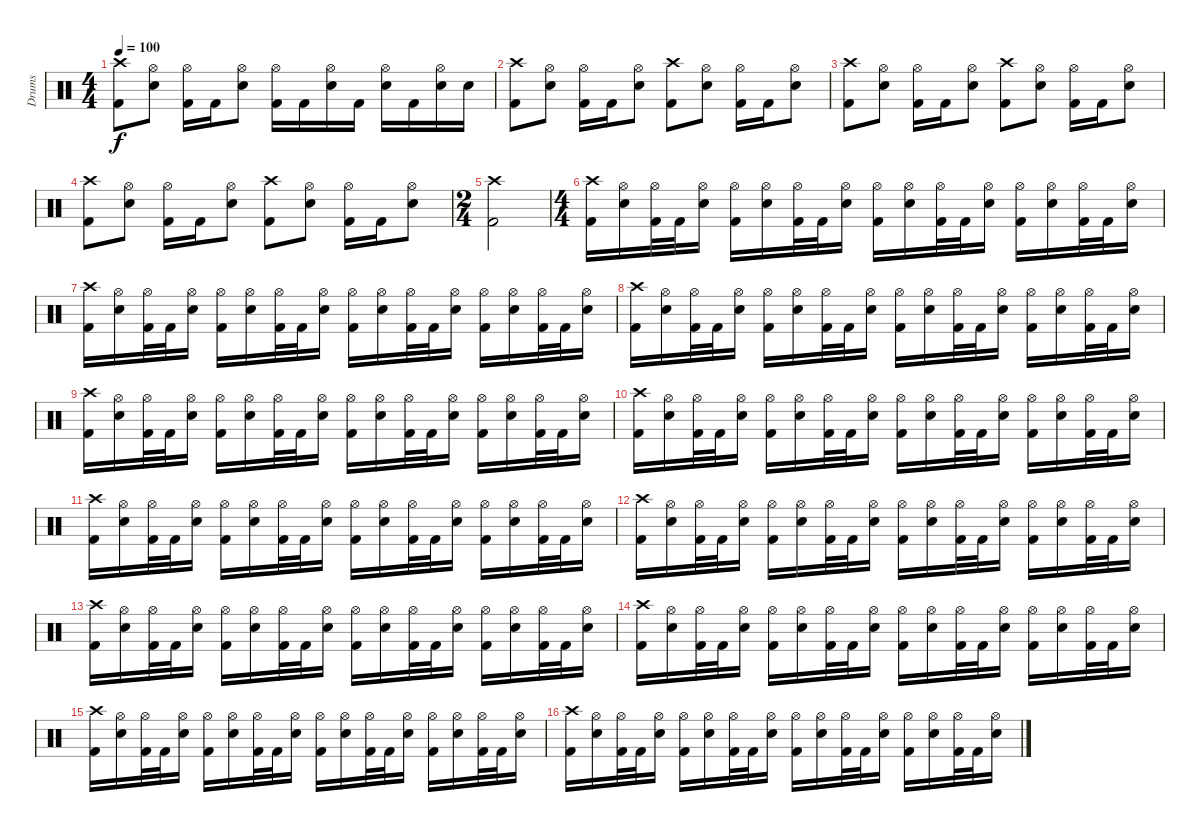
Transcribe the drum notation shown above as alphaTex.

\track ("Drums" "Drums") {instrument percussion}
\staff {score}
\articulation defaults
\ts (4 4)
\tempo 100
\clef neutral
\ks c
("Crash high (hit)" "Kick (hit) 2").8{dy f} ("Hi-Hat (open)" "Electric Snare (hit)").8 ("Hi-Hat (open)" "Kick (hit) 2").16 "Kick (hit) 2".16 ("Hi-Hat (open)" "Electric Snare (hit)").8 ("Hi-Hat (open)" "Kick (hit) 2").16 "Kick (hit) 2".16 ("Hi-Hat (open)" "Electric Snare (hit)").16 "Kick (hit) 2".16 ("Hi-Hat (open)" "Electric Snare (hit)").16 "Kick (hit) 2".16 ("Hi-Hat (open)" "Electric Snare (hit)").16 "Electric Snare (hit)".16 |
("Crash high (hit)" "Kick (hit) 2").8 ("Hi-Hat (open)" "Electric Snare (hit)").8 ("Hi-Hat (open)" "Kick (hit) 2").16 "Kick (hit) 2".16 ("Hi-Hat (open)" "Electric Snare (hit)").8 ("Crash high (hit)" "Kick (hit) 2").8 ("Hi-Hat (open)" "Electric Snare (hit)").8 ("Hi-Hat (open)" "Kick (hit) 2").16 "Kick (hit) 2".16 ("Hi-Hat (open)" "Electric Snare (hit)").8 |
("Crash high (hit)" "Kick (hit) 2").8 ("Hi-Hat (open)" "Electric Snare (hit)").8 ("Hi-Hat (open)" "Kick (hit) 2").16 "Kick (hit) 2".16 ("Hi-Hat (open)" "Electric Snare (hit)").8 ("Crash high (hit)" "Kick (hit) 2").8 ("Hi-Hat (open)" "Electric Snare (hit)").8 ("Hi-Hat (open)" "Kick (hit) 2").16 "Kick (hit) 2".16 ("Hi-Hat (open)" "Electric Snare (hit)").8 |
("Crash high (hit)" "Kick (hit) 2").8 ("Hi-Hat (open)" "Electric Snare (hit)").8 ("Hi-Hat (open)" "Kick (hit) 2").16 "Kick (hit) 2".16 ("Hi-Hat (open)" "Electric Snare (hit)").8 ("Crash high (hit)" "Kick (hit) 2").8 ("Hi-Hat (open)" "Electric Snare (hit)").8 ("Hi-Hat (open)" "Kick (hit) 2").16 "Kick (hit) 2".16 ("Hi-Hat (open)" "Electric Snare (hit)").8 |
\ts (2 4)
("Crash high (hit)" "Kick (hit) 2").2 |
\ts (4 4)
("Crash high (hit)" "Kick (hit) 2").16 ("Hi-Hat (open)" "Electric Snare (hit)").16 ("Hi-Hat (open)" "Kick (hit) 2").32 "Kick (hit) 2".32 ("Hi-Hat (open)" "Electric Snare (hit)").16 ("Hi-Hat (open)" "Kick (hit) 2").16 ("Hi-Hat (open)" "Electric Snare (hit)").16 ("Hi-Hat (open)" "Kick (hit) 2").32 "Kick (hit) 2".32 ("Hi-Hat (open)" "Electric Snare (hit)").16 ("Hi-Hat (open)" "Kick (hit) 2").16 ("Hi-Hat (open)" "Electric Snare (hit)").16 ("Hi-Hat (open)" "Kick (hit) 2").32 "Kick (hit) 2".32 ("Hi-Hat (open)" "Electric Snare (hit)").16 ("Hi-Hat (open)" "Kick (hit) 2").16 ("Hi-Hat (open)" "Electric Snare (hit)").16 ("Hi-Hat (open)" "Kick (hit) 2").32 "Kick (hit) 2".32 ("Hi-Hat (open)" "Electric Snare (hit)").16 |
("Crash high (hit)" "Kick (hit) 2").16 ("Hi-Hat (open)" "Electric Snare (hit)").16 ("Hi-Hat (open)" "Kick (hit) 2").32 "Kick (hit) 2".32 ("Hi-Hat (open)" "Electric Snare (hit)").16 ("Hi-Hat (open)" "Kick (hit) 2").16 ("Hi-Hat (open)" "Electric Snare (hit)").16 ("Hi-Hat (open)" "Kick (hit) 2").32 "Kick (hit) 2".32 ("Hi-Hat (open)" "Electric Snare (hit)").16 ("Hi-Hat (open)" "Kick (hit) 2").16 ("Hi-Hat (open)" "Electric Snare (hit)").16 ("Hi-Hat (open)" "Kick (hit) 2").32 "Kick (hit) 2".32 ("Hi-Hat (open)" "Electric Snare (hit)").16 ("Hi-Hat (open)" "Kick (hit) 2").16 ("Hi-Hat (open)" "Electric Snare (hit)").16 ("Hi-Hat (open)" "Kick (hit) 2").32 "Kick (hit) 2".32 ("Hi-Hat (open)" "Electric Snare (hit)").16 |
("Crash high (hit)" "Kick (hit) 2").16 ("Hi-Hat (open)" "Electric Snare (hit)").16 ("Hi-Hat (open)" "Kick (hit) 2").32 "Kick (hit) 2".32 ("Hi-Hat (open)" "Electric Snare (hit)").16 ("Hi-Hat (open)" "Kick (hit) 2").16 ("Hi-Hat (open)" "Electric Snare (hit)").16 ("Hi-Hat (open)" "Kick (hit) 2").32 "Kick (hit) 2".32 ("Hi-Hat (open)" "Electric Snare (hit)").16 ("Hi-Hat (open)" "Kick (hit) 2").16 ("Hi-Hat (open)" "Electric Snare (hit)").16 ("Hi-Hat (open)" "Kick (hit) 2").32 "Kick (hit) 2".32 ("Hi-Hat (open)" "Electric Snare (hit)").16 ("Hi-Hat (open)" "Kick (hit) 2").16 ("Hi-Hat (open)" "Electric Snare (hit)").16 ("Hi-Hat (open)" "Kick (hit) 2").32 "Kick (hit) 2".32 ("Hi-Hat (open)" "Electric Snare (hit)").16 |
("Crash high (hit)" "Kick (hit) 2").16 ("Hi-Hat (open)" "Electric Snare (hit)").16 ("Hi-Hat (open)" "Kick (hit) 2").32 "Kick (hit) 2".32 ("Hi-Hat (open)" "Electric Snare (hit)").16 ("Hi-Hat (open)" "Kick (hit) 2").16 ("Hi-Hat (open)" "Electric Snare (hit)").16 ("Hi-Hat (open)" "Kick (hit) 2").32 "Kick (hit) 2".32 ("Hi-Hat (open)" "Electric Snare (hit)").16 ("Hi-Hat (open)" "Kick (hit) 2").16 ("Hi-Hat (open)" "Electric Snare (hit)").16 ("Hi-Hat (open)" "Kick (hit) 2").32 "Kick (hit) 2".32 ("Hi-Hat (open)" "Electric Snare (hit)").16 ("Hi-Hat (open)" "Kick (hit) 2").16 ("Hi-Hat (open)" "Electric Snare (hit)").16 ("Hi-Hat (open)" "Kick (hit) 2").32 "Kick (hit) 2".32 ("Hi-Hat (open)" "Electric Snare (hit)").16 |
("Crash high (hit)" "Kick (hit) 2").16 ("Hi-Hat (open)" "Electric Snare (hit)").16 ("Hi-Hat (open)" "Kick (hit) 2").32 "Kick (hit) 2".32 ("Hi-Hat (open)" "Electric Snare (hit)").16 ("Hi-Hat (open)" "Kick (hit) 2").16 ("Hi-Hat (open)" "Electric Snare (hit)").16 ("Hi-Hat (open)" "Kick (hit) 2").32 "Kick (hit) 2".32 ("Hi-Hat (open)" "Electric Snare (hit)").16 ("Hi-Hat (open)" "Kick (hit) 2").16 ("Hi-Hat (open)" "Electric Snare (hit)").16 ("Hi-Hat (open)" "Kick (hit) 2").32 "Kick (hit) 2".32 ("Hi-Hat (open)" "Electric Snare (hit)").16 ("Hi-Hat (open)" "Kick (hit) 2").16 ("Hi-Hat (open)" "Electric Snare (hit)").16 ("Hi-Hat (open)" "Kick (hit) 2").32 "Kick (hit) 2".32 ("Hi-Hat (open)" "Electric Snare (hit)").16 |
("Crash high (hit)" "Kick (hit) 2").16 ("Hi-Hat (open)" "Electric Snare (hit)").16 ("Hi-Hat (open)" "Kick (hit) 2").32 "Kick (hit) 2".32 ("Hi-Hat (open)" "Electric Snare (hit)").16 ("Hi-Hat (open)" "Kick (hit) 2").16 ("Hi-Hat (open)" "Electric Snare (hit)").16 ("Hi-Hat (open)" "Kick (hit) 2").32 "Kick (hit) 2".32 ("Hi-Hat (open)" "Electric Snare (hit)").16 ("Hi-Hat (open)" "Kick (hit) 2").16 ("Hi-Hat (open)" "Electric Snare (hit)").16 ("Hi-Hat (open)" "Kick (hit) 2").32 "Kick (hit) 2".32 ("Hi-Hat (open)" "Electric Snare (hit)").16 ("Hi-Hat (open)" "Kick (hit) 2").16 ("Hi-Hat (open)" "Electric Snare (hit)").16 ("Hi-Hat (open)" "Kick (hit) 2").32 "Kick (hit) 2".32 ("Hi-Hat (open)" "Electric Snare (hit)").16 |
("Crash high (hit)" "Kick (hit) 2").16 ("Hi-Hat (open)" "Electric Snare (hit)").16 ("Hi-Hat (open)" "Kick (hit) 2").32 "Kick (hit) 2".32 ("Hi-Hat (open)" "Electric Snare (hit)").16 ("Hi-Hat (open)" "Kick (hit) 2").16 ("Hi-Hat (open)" "Electric Snare (hit)").16 ("Hi-Hat (open)" "Kick (hit) 2").32 "Kick (hit) 2".32 ("Hi-Hat (open)" "Electric Snare (hit)").16 ("Hi-Hat (open)" "Kick (hit) 2").16 ("Hi-Hat (open)" "Electric Snare (hit)").16 ("Hi-Hat (open)" "Kick (hit) 2").32 "Kick (hit) 2".32 ("Hi-Hat (open)" "Electric Snare (hit)").16 ("Hi-Hat (open)" "Kick (hit) 2").16 ("Hi-Hat (open)" "Electric Snare (hit)").16 ("Hi-Hat (open)" "Kick (hit) 2").32 "Kick (hit) 2".32 ("Hi-Hat (open)" "Electric Snare (hit)").16 |
("Crash high (hit)" "Kick (hit) 2").16 ("Hi-Hat (open)" "Electric Snare (hit)").16 ("Hi-Hat (open)" "Kick (hit) 2").32 "Kick (hit) 2".32 ("Hi-Hat (open)" "Electric Snare (hit)").16 ("Hi-Hat (open)" "Kick (hit) 2").16 ("Hi-Hat (open)" "Electric Snare (hit)").16 ("Hi-Hat (open)" "Kick (hit) 2").32 "Kick (hit) 2".32 ("Hi-Hat (open)" "Electric Snare (hit)").16 ("Hi-Hat (open)" "Kick (hit) 2").16 ("Hi-Hat (open)" "Electric Snare (hit)").16 ("Hi-Hat (open)" "Kick (hit) 2").32 "Kick (hit) 2".32 ("Hi-Hat (open)" "Electric Snare (hit)").16 ("Hi-Hat (open)" "Kick (hit) 2").16 ("Hi-Hat (open)" "Electric Snare (hit)").16 ("Hi-Hat (open)" "Kick (hit) 2").32 "Kick (hit) 2".32 ("Hi-Hat (open)" "Electric Snare (hit)").16 |
("Crash high (hit)" "Kick (hit) 2").16 ("Hi-Hat (open)" "Electric Snare (hit)").16 ("Hi-Hat (open)" "Kick (hit) 2").32 "Kick (hit) 2".32 ("Hi-Hat (open)" "Electric Snare (hit)").16 ("Hi-Hat (open)" "Kick (hit) 2").16 ("Hi-Hat (open)" "Electric Snare (hit)").16 ("Hi-Hat (open)" "Kick (hit) 2").32 "Kick (hit) 2".32 ("Hi-Hat (open)" "Electric Snare (hit)").16 ("Hi-Hat (open)" "Kick (hit) 2").16 ("Hi-Hat (open)" "Electric Snare (hit)").16 ("Hi-Hat (open)" "Kick (hit) 2").32 "Kick (hit) 2".32 ("Hi-Hat (open)" "Electric Snare (hit)").16 ("Hi-Hat (open)" "Kick (hit) 2").16 ("Hi-Hat (open)" "Electric Snare (hit)").16 ("Hi-Hat (open)" "Kick (hit) 2").32 "Kick (hit) 2".32 ("Hi-Hat (open)" "Electric Snare (hit)").16 |
("Crash high (hit)" "Kick (hit) 2").16 ("Hi-Hat (open)" "Electric Snare (hit)").16 ("Hi-Hat (open)" "Kick (hit) 2").32 "Kick (hit) 2".32 ("Hi-Hat (open)" "Electric Snare (hit)").16 ("Hi-Hat (open)" "Kick (hit) 2").16 ("Hi-Hat (open)" "Electric Snare (hit)").16 ("Hi-Hat (open)" "Kick (hit) 2").32 "Kick (hit) 2".32 ("Hi-Hat (open)" "Electric Snare (hit)").16 ("Hi-Hat (open)" "Kick (hit) 2").16 ("Hi-Hat (open)" "Electric Snare (hit)").16 ("Hi-Hat (open)" "Kick (hit) 2").32 "Kick (hit) 2".32 ("Hi-Hat (open)" "Electric Snare (hit)").16 ("Hi-Hat (open)" "Kick (hit) 2").16 ("Hi-Hat (open)" "Electric Snare (hit)").16 ("Hi-Hat (open)" "Kick (hit) 2").32 "Kick (hit) 2".32 ("Hi-Hat (open)" "Electric Snare (hit)").16 |
("Crash high (hit)" "Kick (hit) 2").16 ("Hi-Hat (open)" "Electric Snare (hit)").16 ("Hi-Hat (open)" "Kick (hit) 2").32 "Kick (hit) 2".32 ("Hi-Hat (open)" "Electric Snare (hit)").16 ("Hi-Hat (open)" "Kick (hit) 2").16 ("Hi-Hat (open)" "Electric Snare (hit)").16 ("Hi-Hat (open)" "Kick (hit) 2").32 "Kick (hit) 2".32 ("Hi-Hat (open)" "Electric Snare (hit)").16 ("Hi-Hat (open)" "Kick (hit) 2").16 ("Hi-Hat (open)" "Electric Snare (hit)").16 ("Hi-Hat (open)" "Kick (hit) 2").32 "Kick (hit) 2".32 ("Hi-Hat (open)" "Electric Snare (hit)").16 ("Hi-Hat (open)" "Kick (hit) 2").16 ("Hi-Hat (open)" "Electric Snare (hit)").16 ("Hi-Hat (open)" "Kick (hit) 2").32 "Kick (hit) 2".32 ("Hi-Hat (open)" "Electric Snare (hit)").16
